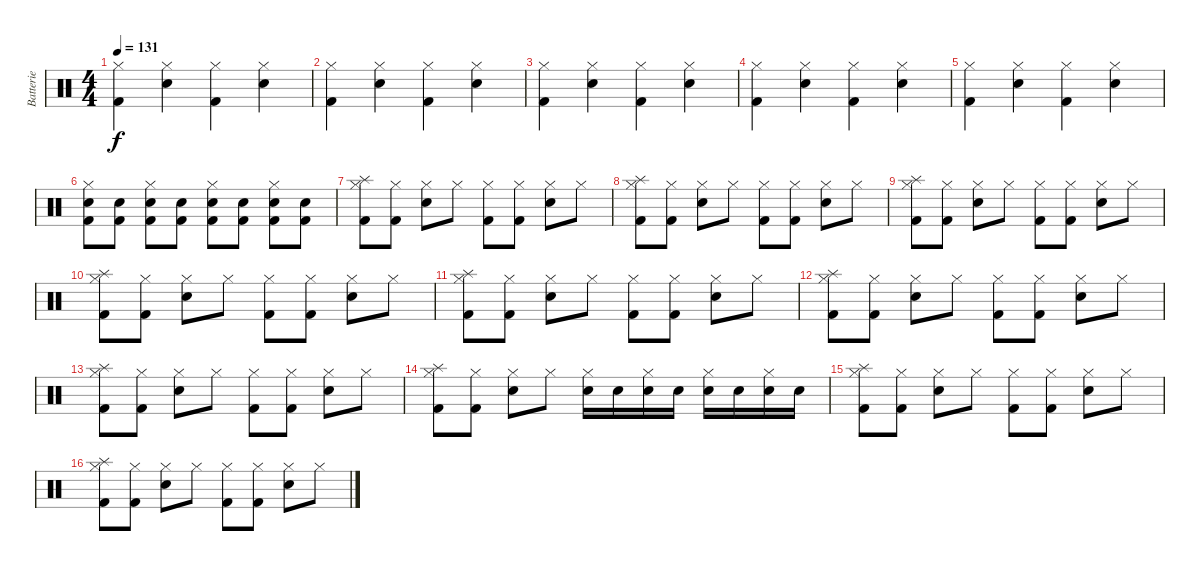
\track ("Batterie" "Batterie") {instrument percussion}
\staff {score}
\articulation defaults
\ts (4 4)
\tempo 131
\clef neutral
\ks c
("Hi-Hat (closed)" "Kick (hit) 2").4{dy f} ("Hi-Hat (closed)" "Snare (hit) 2").4 ("Hi-Hat (closed)" "Kick (hit) 2").4 ("Hi-Hat (closed)" "Snare (hit) 2").4 |
("Hi-Hat (closed)" "Kick (hit) 2").4 ("Hi-Hat (closed)" "Snare (hit) 2").4 ("Hi-Hat (closed)" "Kick (hit) 2").4 ("Hi-Hat (closed)" "Snare (hit) 2").4 |
("Hi-Hat (closed)" "Kick (hit) 2").4 ("Hi-Hat (closed)" "Snare (hit) 2").4 ("Hi-Hat (closed)" "Kick (hit) 2").4 ("Hi-Hat (closed)" "Snare (hit) 2").4 |
("Hi-Hat (closed)" "Kick (hit) 2").4 ("Hi-Hat (closed)" "Snare (hit) 2").4 ("Hi-Hat (closed)" "Kick (hit) 2").4 ("Hi-Hat (closed)" "Snare (hit) 2").4 |
("Hi-Hat (closed)" "Kick (hit) 2").4 ("Hi-Hat (closed)" "Snare (hit) 2").4 ("Hi-Hat (closed)" "Kick (hit) 2").4 ("Hi-Hat (closed)" "Snare (hit) 2").4 |
("Hi-Hat (closed)" "Snare (hit) 2" "Kick (hit) 2").8 ("Snare (hit) 2" "Kick (hit) 2").8 ("Hi-Hat (closed)" "Snare (hit) 2" "Kick (hit) 2").8 ("Snare (hit) 2" "Kick (hit) 2").8 ("Hi-Hat (closed)" "Snare (hit) 2" "Kick (hit) 2").8 ("Snare (hit) 2" "Kick (hit) 2").8 ("Hi-Hat (closed)" "Snare (hit) 2" "Kick (hit) 2").8 ("Snare (hit) 2" "Kick (hit) 2").8 |
("Splash (hit)" "Hi-Hat (closed)" "Kick (hit) 2").8 ("Hi-Hat (closed)" "Kick (hit) 2").8 ("Hi-Hat (closed)" "Snare (hit) 2").8 "Hi-Hat (closed)".8 ("Hi-Hat (closed)" "Kick (hit) 2").8 ("Hi-Hat (closed)" "Kick (hit) 2").8 ("Hi-Hat (closed)" "Snare (hit) 2").8 "Hi-Hat (closed)".8 |
("Splash (hit)" "Hi-Hat (closed)" "Kick (hit) 2").8 ("Hi-Hat (closed)" "Kick (hit) 2").8 ("Hi-Hat (closed)" "Snare (hit) 2").8 "Hi-Hat (closed)".8 ("Hi-Hat (closed)" "Kick (hit) 2").8 ("Hi-Hat (closed)" "Kick (hit) 2").8 ("Hi-Hat (closed)" "Snare (hit) 2").8 "Hi-Hat (closed)".8 |
("Splash (hit)" "Hi-Hat (closed)" "Kick (hit) 2").8 ("Hi-Hat (closed)" "Kick (hit) 2").8 ("Hi-Hat (closed)" "Snare (hit) 2").8 "Hi-Hat (closed)".8 ("Hi-Hat (closed)" "Kick (hit) 2").8 ("Hi-Hat (closed)" "Kick (hit) 2").8 ("Hi-Hat (closed)" "Snare (hit) 2").8 "Hi-Hat (closed)".8 |
("Splash (hit)" "Hi-Hat (closed)" "Kick (hit) 2").8 ("Hi-Hat (closed)" "Kick (hit) 2").8 ("Hi-Hat (closed)" "Snare (hit) 2").8 "Hi-Hat (closed)".8 ("Hi-Hat (closed)" "Kick (hit) 2").8 ("Hi-Hat (closed)" "Kick (hit) 2").8 ("Hi-Hat (closed)" "Snare (hit) 2").8 "Hi-Hat (closed)".8 |
("Splash (hit)" "Hi-Hat (closed)" "Kick (hit) 2").8 ("Hi-Hat (closed)" "Kick (hit) 2").8 ("Hi-Hat (closed)" "Snare (hit) 2").8 "Hi-Hat (closed)".8 ("Hi-Hat (closed)" "Kick (hit) 2").8 ("Hi-Hat (closed)" "Kick (hit) 2").8 ("Hi-Hat (closed)" "Snare (hit) 2").8 "Hi-Hat (closed)".8 |
("Splash (hit)" "Hi-Hat (closed)" "Kick (hit) 2").8 ("Hi-Hat (closed)" "Kick (hit) 2").8 ("Hi-Hat (closed)" "Snare (hit) 2").8 "Hi-Hat (closed)".8 ("Hi-Hat (closed)" "Kick (hit) 2").8 ("Hi-Hat (closed)" "Kick (hit) 2").8 ("Hi-Hat (closed)" "Snare (hit) 2").8 "Hi-Hat (closed)".8 |
("Splash (hit)" "Hi-Hat (closed)" "Kick (hit) 2").8 ("Hi-Hat (closed)" "Kick (hit) 2").8 ("Hi-Hat (closed)" "Snare (hit) 2").8 "Hi-Hat (closed)".8 ("Hi-Hat (closed)" "Kick (hit) 2").8 ("Hi-Hat (closed)" "Kick (hit) 2").8 ("Hi-Hat (closed)" "Snare (hit) 2").8 "Hi-Hat (closed)".8 |
("Splash (hit)" "Hi-Hat (closed)" "Kick (hit) 2").8 ("Hi-Hat (closed)" "Kick (hit) 2").8 ("Hi-Hat (closed)" "Snare (hit) 2").8 "Hi-Hat (closed)".8 ("Hi-Hat (closed)" "Snare (hit) 2").16 "Snare (hit) 2".16 ("Hi-Hat (closed)" "Snare (hit) 2").16 "Snare (hit) 2".16 ("Hi-Hat (closed)" "Snare (hit) 2").16 "Snare (hit) 2".16 ("Hi-Hat (closed)" "Snare (hit) 2").16 "Snare (hit) 2".16 |
("Splash (hit)" "Hi-Hat (closed)" "Kick (hit) 2").8 ("Hi-Hat (closed)" "Kick (hit) 2").8 ("Hi-Hat (closed)" "Snare (hit) 2").8 "Hi-Hat (closed)".8 ("Hi-Hat (closed)" "Kick (hit) 2").8 ("Hi-Hat (closed)" "Kick (hit) 2").8 ("Hi-Hat (closed)" "Snare (hit) 2").8 "Hi-Hat (closed)".8 |
("Splash (hit)" "Hi-Hat (closed)" "Kick (hit) 2").8 ("Hi-Hat (closed)" "Kick (hit) 2").8 ("Hi-Hat (closed)" "Snare (hit) 2").8 "Hi-Hat (closed)".8 ("Hi-Hat (closed)" "Kick (hit) 2").8 ("Hi-Hat (closed)" "Kick (hit) 2").8 ("Hi-Hat (closed)" "Snare (hit) 2").8 "Hi-Hat (closed)".8
